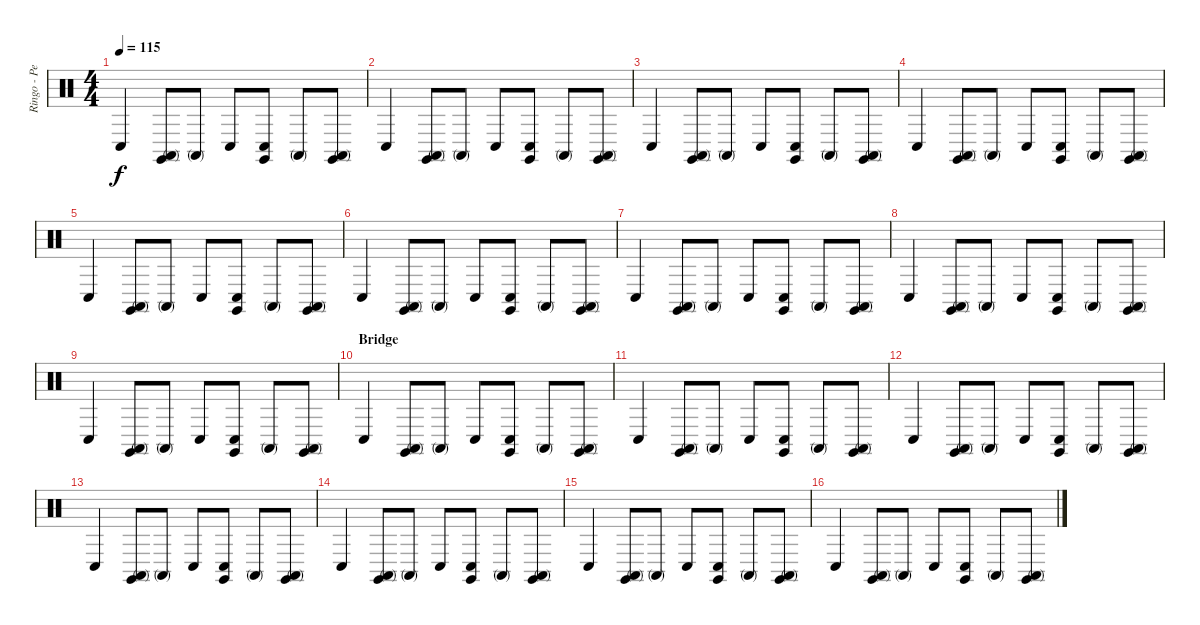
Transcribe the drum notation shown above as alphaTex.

\track ("Ringo - Percussion" "Ringo - Pe") {instrument percussion}
\staff {score}
\articulation defaults
\ts (4 4)
\tempo 115
\clef neutral
\ks c "Conga low (hit)".4{dy f}
("Conga high (mute)" "Claves (hit)").8 "Conga high (mute)".8 "Conga low (hit)".8 ("Conga low (hit)" "Claves (hit)").8 "Conga high (mute)".8 ("Conga high (mute)" "Claves (hit)").8 |
"Conga low (hit)".4 ("Conga high (mute)" "Claves (hit)").8 "Conga high (mute)".8 "Conga low (hit)".8 ("Conga low (hit)" "Claves (hit)").8 "Conga high (mute)".8 ("Conga high (mute)" "Claves (hit)").8 |
"Conga low (hit)".4 ("Conga high (mute)" "Claves (hit)").8 "Conga high (mute)".8 "Conga low (hit)".8 ("Conga low (hit)" "Claves (hit)").8 "Conga high (mute)".8 ("Conga high (mute)" "Claves (hit)").8 |
"Conga low (hit)".4 ("Conga high (mute)" "Claves (hit)").8 "Conga high (mute)".8 "Conga low (hit)".8 ("Conga low (hit)" "Claves (hit)").8 "Conga high (mute)".8 ("Conga high (mute)" "Claves (hit)").8 |
"Conga low (hit)".4 ("Conga high (mute)" "Claves (hit)").8 "Conga high (mute)".8 "Conga low (hit)".8 ("Conga low (hit)" "Claves (hit)").8 "Conga high (mute)".8 ("Conga high (mute)" "Claves (hit)").8 |
"Conga low (hit)".4 ("Conga high (mute)" "Claves (hit)").8 "Conga high (mute)".8 "Conga low (hit)".8 ("Conga low (hit)" "Claves (hit)").8 "Conga high (mute)".8 ("Conga high (mute)" "Claves (hit)").8 |
"Conga low (hit)".4 ("Conga high (mute)" "Claves (hit)").8 "Conga high (mute)".8 "Conga low (hit)".8 ("Conga low (hit)" "Claves (hit)").8 "Conga high (mute)".8 ("Conga high (mute)" "Claves (hit)").8 |
"Conga low (hit)".4 ("Conga high (mute)" "Claves (hit)").8 "Conga high (mute)".8 "Conga low (hit)".8 ("Conga low (hit)" "Claves (hit)").8 "Conga high (mute)".8 ("Conga high (mute)" "Claves (hit)").8 |
"Conga low (hit)".4 ("Conga high (mute)" "Claves (hit)").8 "Conga high (mute)".8 "Conga low (hit)".8 ("Conga low (hit)" "Claves (hit)").8 "Conga high (mute)".8 ("Conga high (mute)" "Claves (hit)").8 |
\section ("" "Bridge")
"Conga low (hit)".4 ("Conga high (mute)" "Claves (hit)").8 "Conga high (mute)".8 "Conga low (hit)".8 ("Conga low (hit)" "Claves (hit)").8 "Conga high (mute)".8 ("Conga high (mute)" "Claves (hit)").8 |
"Conga low (hit)".4 ("Conga high (mute)" "Claves (hit)").8 "Conga high (mute)".8 "Conga low (hit)".8 ("Conga low (hit)" "Claves (hit)").8 "Conga high (mute)".8 ("Conga high (mute)" "Claves (hit)").8 |
"Conga low (hit)".4 ("Conga high (mute)" "Claves (hit)").8 "Conga high (mute)".8 "Conga low (hit)".8 ("Conga low (hit)" "Claves (hit)").8 "Conga high (mute)".8 ("Conga high (mute)" "Claves (hit)").8 |
"Conga low (hit)".4 ("Conga high (mute)" "Claves (hit)").8 "Conga high (mute)".8 "Conga low (hit)".8 ("Conga low (hit)" "Claves (hit)").8 "Conga high (mute)".8 ("Conga high (mute)" "Claves (hit)").8 |
"Conga low (hit)".4 ("Conga high (mute)" "Claves (hit)").8 "Conga high (mute)".8 "Conga low (hit)".8 ("Conga low (hit)" "Claves (hit)").8 "Conga high (mute)".8 ("Conga high (mute)" "Claves (hit)").8 |
"Conga low (hit)".4 ("Conga high (mute)" "Claves (hit)").8 "Conga high (mute)".8 "Conga low (hit)".8 ("Conga low (hit)" "Claves (hit)").8 "Conga high (mute)".8 ("Conga high (mute)" "Claves (hit)").8 |
"Conga low (hit)".4 ("Conga high (mute)" "Claves (hit)").8 "Conga high (mute)".8 "Conga low (hit)".8 ("Conga low (hit)" "Claves (hit)").8 "Conga high (mute)".8 ("Conga high (mute)" "Claves (hit)").8
